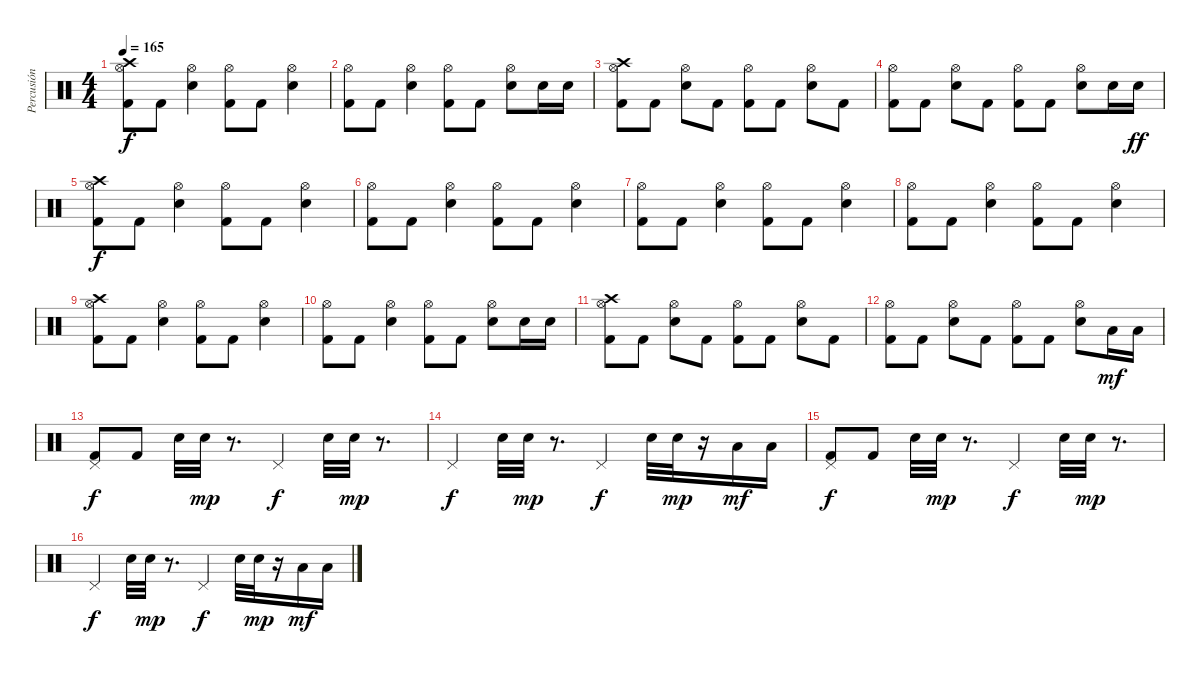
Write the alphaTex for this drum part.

\track ("Percusión" "Percusión") {instrument percussion}
\staff {score}
\articulation defaults
\ts (4 4)
\tempo 165
\clef neutral
\ks c
("Crash high (hit)" "Hi-Hat (open)" "Kick (hit) 2").8{dy f} "Kick (hit) 2".8 ("Hi-Hat (open)" "Snare (hit) 2").4 ("Hi-Hat (open)" "Kick (hit) 2").8 "Kick (hit) 2".8 ("Hi-Hat (open)" "Snare (hit) 2").4 |
("Hi-Hat (open)" "Kick (hit) 2").8 "Kick (hit) 2".8 ("Hi-Hat (open)" "Snare (hit) 2").4 ("Hi-Hat (open)" "Kick (hit) 2").8 "Kick (hit) 2".8 ("Hi-Hat (open)" "Snare (hit) 2").8 "Snare (hit) 2".16 "Snare (hit) 2".16 |
("Crash high (hit)" "Hi-Hat (open)" "Kick (hit) 2").8 "Kick (hit) 2".8 ("Hi-Hat (open)" "Snare (hit) 2").8 "Kick (hit) 2".8 ("Hi-Hat (open)" "Kick (hit) 2").8 "Kick (hit) 2".8 ("Hi-Hat (open)" "Snare (hit) 2").8 "Kick (hit) 2".8 |
("Hi-Hat (open)" "Kick (hit) 2").8 "Kick (hit) 2".8 ("Hi-Hat (open)" "Snare (hit) 2").8 "Kick (hit) 2".8 ("Hi-Hat (open)" "Kick (hit) 2").8 "Kick (hit) 2".8 ("Hi-Hat (open)" "Snare (hit) 2").8 "Snare (hit) 2".16 "Snare (hit) 2".16{dy ff} |
("Crash high (hit)" "Hi-Hat (open)" "Kick (hit) 2").8{dy f} "Kick (hit) 2".8 ("Hi-Hat (open)" "Snare (hit) 2").4 ("Hi-Hat (open)" "Kick (hit) 2").8 "Kick (hit) 2".8 ("Hi-Hat (open)" "Snare (hit) 2").4 |
("Hi-Hat (open)" "Kick (hit) 2").8 "Kick (hit) 2".8 ("Hi-Hat (open)" "Snare (hit) 2").4 ("Hi-Hat (open)" "Kick (hit) 2").8 "Kick (hit) 2".8 ("Hi-Hat (open)" "Snare (hit) 2").4 |
("Hi-Hat (open)" "Kick (hit) 2").8 "Kick (hit) 2".8 ("Hi-Hat (open)" "Snare (hit) 2").4 ("Hi-Hat (open)" "Kick (hit) 2").8 "Kick (hit) 2".8 ("Hi-Hat (open)" "Snare (hit) 2").4 |
("Hi-Hat (open)" "Kick (hit) 2").8 "Kick (hit) 2".8 ("Hi-Hat (open)" "Snare (hit) 2").4 ("Hi-Hat (open)" "Kick (hit) 2").8 "Kick (hit) 2".8 ("Hi-Hat (open)" "Snare (hit) 2").4 |
("Crash high (hit)" "Hi-Hat (open)" "Kick (hit) 2").8 "Kick (hit) 2".8 ("Hi-Hat (open)" "Snare (hit) 2").4 ("Hi-Hat (open)" "Kick (hit) 2").8 "Kick (hit) 2".8 ("Hi-Hat (open)" "Snare (hit) 2").4 |
("Hi-Hat (open)" "Kick (hit) 2").8 "Kick (hit) 2".8 ("Hi-Hat (open)" "Snare (hit) 2").4 ("Hi-Hat (open)" "Kick (hit) 2").8 "Kick (hit) 2".8 ("Hi-Hat (open)" "Snare (hit) 2").8 "Snare (hit) 2".16 "Snare (hit) 2".16 |
("Crash high (hit)" "Hi-Hat (open)" "Kick (hit) 2").8 "Kick (hit) 2".8 ("Hi-Hat (open)" "Snare (hit) 2").8 "Kick (hit) 2".8 ("Hi-Hat (open)" "Kick (hit) 2").8 "Kick (hit) 2".8 ("Hi-Hat (open)" "Snare (hit) 2").8 "Kick (hit) 2".8 |
("Hi-Hat (open)" "Kick (hit) 2").8 "Kick (hit) 2".8 ("Hi-Hat (open)" "Snare (hit) 2").8 "Kick (hit) 2".8 ("Hi-Hat (open)" "Kick (hit) 2").8 "Kick (hit) 2".8 ("Hi-Hat (open)" "Snare (hit) 2").8 "Low Tom (hit)".16{dy mf} "Low Tom (hit)".16 |
("Pedal Hi-Hat (hit)" "Kick (hit) 2").8{dy f} "Kick (hit) 2".8 "Snare (hit) 2".32 "Snare (hit) 2".32{dy mp} r.8{d} "Pedal Hi-Hat (hit)".4{dy f} "Snare (hit) 2".32 "Snare (hit) 2".32{dy mp} r.8{d} |
"Pedal Hi-Hat (hit)".4{dy f} "Snare (hit) 2".32 "Snare (hit) 2".32{dy mp} r.8{d} "Pedal Hi-Hat (hit)".4{dy f} "Snare (hit) 2".32 "Snare (hit) 2".32{dy mp} r.16 "Low Tom (hit)".16{dy mf} "Low Tom (hit)".16 |
("Pedal Hi-Hat (hit)" "Kick (hit) 2").8{dy f} "Kick (hit) 2".8 "Snare (hit) 2".32 "Snare (hit) 2".32{dy mp} r.8{d} "Pedal Hi-Hat (hit)".4{dy f} "Snare (hit) 2".32 "Snare (hit) 2".32{dy mp} r.8{d} |
"Pedal Hi-Hat (hit)".4{dy f} "Snare (hit) 2".32 "Snare (hit) 2".32{dy mp} r.8{d} "Pedal Hi-Hat (hit)".4{dy f} "Snare (hit) 2".32 "Snare (hit) 2".32{dy mp} r.16 "Low Tom (hit)".16{dy mf} "Low Tom (hit)".16
